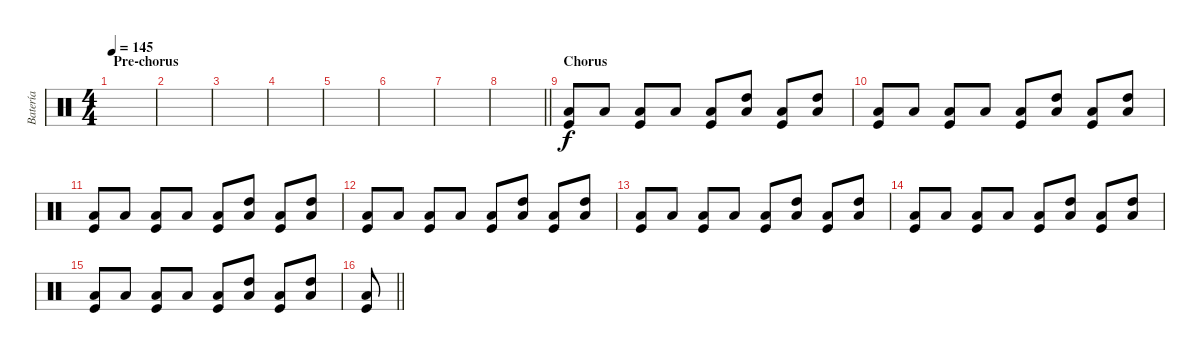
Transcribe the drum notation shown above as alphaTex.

\track ("Batería" "Batería") {instrument percussion}
\staff {score}
\articulation defaults
\ts (4 4)
\section ("" "Pre-chorus")
\tempo 145
\clef neutral
\ks c
|
|
|
|
|
|
|
\barLineRight lightlight
|
\section ("" "Chorus")
("Low Floor Tom (hit)" "Kick (hit)").8 "Low Floor Tom (hit)".8 ("Low Floor Tom (hit)" "Kick (hit)").8 "Low Floor Tom (hit)".8 ("Low Floor Tom (hit)" "Kick (hit)").8 ("Low Floor Tom (hit)" "High Tom (hit)").8 ("Low Floor Tom (hit)" "Kick (hit)").8 ("Low Floor Tom (hit)" "High Tom (hit)").8 |
("Low Floor Tom (hit)" "Kick (hit)").8 "Low Floor Tom (hit)".8 ("Low Floor Tom (hit)" "Kick (hit)").8 "Low Floor Tom (hit)".8 ("Low Floor Tom (hit)" "Kick (hit)").8 ("Low Floor Tom (hit)" "High Tom (hit)").8 ("Low Floor Tom (hit)" "Kick (hit)").8 ("Low Floor Tom (hit)" "High Tom (hit)").8 |
("Low Floor Tom (hit)" "Kick (hit)").8 "Low Floor Tom (hit)".8 ("Low Floor Tom (hit)" "Kick (hit)").8 "Low Floor Tom (hit)".8 ("Low Floor Tom (hit)" "Kick (hit)").8 ("Low Floor Tom (hit)" "High Tom (hit)").8 ("Low Floor Tom (hit)" "Kick (hit)").8 ("Low Floor Tom (hit)" "High Tom (hit)").8 |
("Low Floor Tom (hit)" "Kick (hit)").8 "Low Floor Tom (hit)".8 ("Low Floor Tom (hit)" "Kick (hit)").8 "Low Floor Tom (hit)".8 ("Low Floor Tom (hit)" "Kick (hit)").8 ("Low Floor Tom (hit)" "High Tom (hit)").8 ("Low Floor Tom (hit)" "Kick (hit)").8 ("Low Floor Tom (hit)" "High Tom (hit)").8 |
("Low Floor Tom (hit)" "Kick (hit)").8 "Low Floor Tom (hit)".8 ("Low Floor Tom (hit)" "Kick (hit)").8 "Low Floor Tom (hit)".8 ("Low Floor Tom (hit)" "Kick (hit)").8 ("Low Floor Tom (hit)" "High Tom (hit)").8 ("Low Floor Tom (hit)" "Kick (hit)").8 ("Low Floor Tom (hit)" "High Tom (hit)").8 |
("Low Floor Tom (hit)" "Kick (hit)").8 "Low Floor Tom (hit)".8 ("Low Floor Tom (hit)" "Kick (hit)").8 "Low Floor Tom (hit)".8 ("Low Floor Tom (hit)" "Kick (hit)").8 ("Low Floor Tom (hit)" "High Tom (hit)").8 ("Low Floor Tom (hit)" "Kick (hit)").8 ("Low Floor Tom (hit)" "High Tom (hit)").8 |
("Low Floor Tom (hit)" "Kick (hit)").8 "Low Floor Tom (hit)".8 ("Low Floor Tom (hit)" "Kick (hit)").8 "Low Floor Tom (hit)".8 ("Low Floor Tom (hit)" "Kick (hit)").8 ("Low Floor Tom (hit)" "High Tom (hit)").8 ("Low Floor Tom (hit)" "Kick (hit)").8 ("Low Floor Tom (hit)" "High Tom (hit)").8 |
\barLineRight lightlight
("Low Floor Tom (hit)" "Kick (hit)").8
